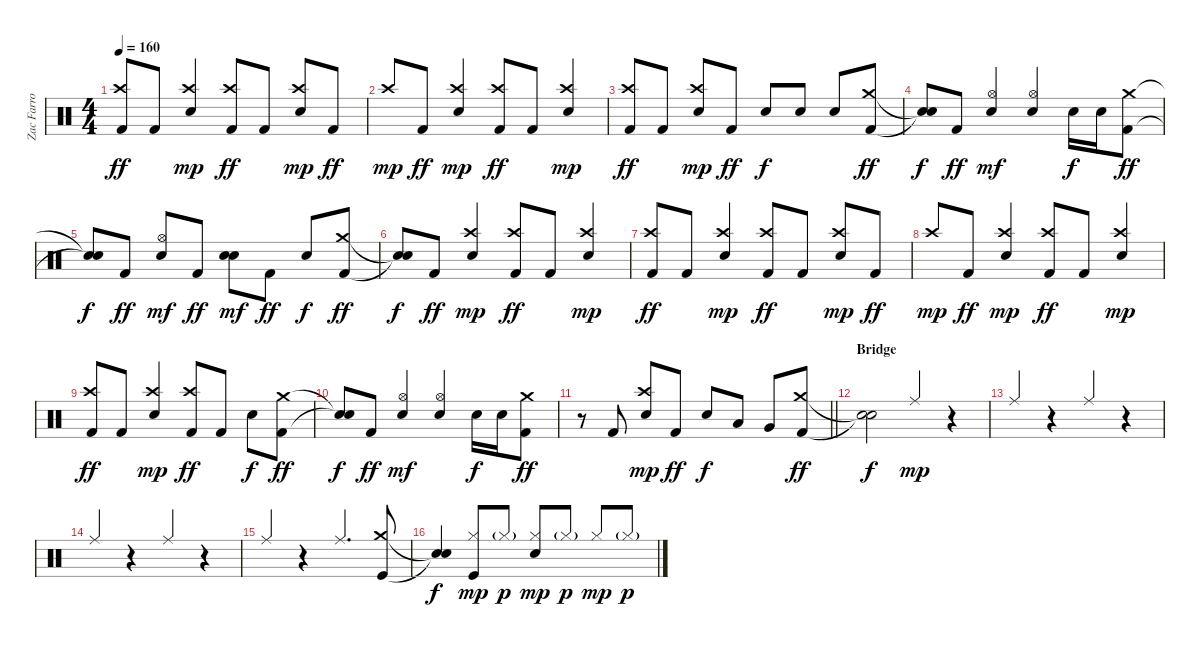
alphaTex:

\track ("Zac Farro" "Zac Farro") {instrument percussion}
\staff {score}
\articulation defaults
\ts (4 4)
\tempo 160
\clef neutral
\ks c
("Crash high (hit)" "Kick (hit) 2").8{dy ff beam Up} "Kick (hit) 2".8{beam Up} ("Crash high (hit)" "Snare (hit) 2").4{dy mp beam Up} ("Crash high (hit)" "Kick (hit) 2").8{dy ff beam Up} "Kick (hit) 2".8{beam Up} ("Crash high (hit)" "Snare (hit) 2").8{dy mp beam Up} "Kick (hit) 2".8{dy ff beam Up} |
"Crash high (hit)".8{dy mp beam Up} "Kick (hit) 2".8{dy ff beam Up} ("Crash high (hit)" "Snare (hit) 2").4{dy mp beam Up} ("Crash high (hit)" "Kick (hit) 2").8{dy ff beam Up} "Kick (hit) 2".8{beam Up} ("Crash high (hit)" "Snare (hit) 2").4{dy mp beam Up} |
("Crash high (hit)" "Kick (hit) 2").8{dy ff beam Up} "Kick (hit) 2".8{beam Up} ("Crash high (hit)" "Snare (hit) 2").8{dy mp beam Up} "Kick (hit) 2".8{dy ff beam Up} "Snare (hit) 2".8{dy f beam Up} "Snare (hit) 2".8{beam Up} "Snare (hit) 2".8{beam Up} ("Crash medium (hit)" "Kick (hit) 2").8{dy ff beam Up} |
("Snare (hit)"{t} "Snare (hit)"{t}).8{dy f beam Up} "Kick (hit) 2".8{dy ff} ("Hi-Hat (open)" "Snare (hit) 2").4{dy mf beam Up} ("Hi-Hat (open)" "Snare (hit) 2").4{beam Up} "Snare (hit) 2".16{dy f beam Down} "Snare (hit) 2".16{beam Down} ("Crash medium (hit)" "Kick (hit) 2").8{dy ff beam Down} |
("Snare (hit)"{t} "Snare (hit)"{t}).8{dy f beam Up} "Kick (hit) 2".8{dy ff} ("Hi-Hat (open)" "Snare (hit) 2").8{dy mf beam Up} "Kick (hit) 2".8{dy ff beam Up} ("Snare (hit) 2" "Snare (hit) 2").8{dy mf beam Down} "Kick (hit) 2".8{dy ff beam Down} "Snare (hit) 2".8{dy f beam Up} ("Crash medium (hit)" "Kick (hit) 2").8{dy ff beam Up} |
("Snare (hit)"{t} "Snare (hit)"{t}).8{dy f beam Up} "Kick (hit) 2".8{dy ff} ("Crash high (hit)" "Snare (hit) 2").4{dy mp beam Up} ("Crash high (hit)" "Kick (hit) 2").8{dy ff beam Up} "Kick (hit) 2".8{beam Up} ("Crash high (hit)" "Snare (hit) 2").4{dy mp beam Up} |
("Crash high (hit)" "Kick (hit) 2").8{dy ff beam Up} "Kick (hit) 2".8{beam Up} ("Crash high (hit)" "Snare (hit) 2").4{dy mp beam Up} ("Crash high (hit)" "Kick (hit) 2").8{dy ff beam Up} "Kick (hit) 2".8{beam Up} ("Crash high (hit)" "Snare (hit) 2").8{dy mp beam Up} "Kick (hit) 2".8{dy ff beam Up} |
"Crash high (hit)".8{dy mp beam Up} "Kick (hit) 2".8{dy ff beam Up} ("Crash high (hit)" "Snare (hit) 2").4{dy mp beam Up} ("Crash high (hit)" "Kick (hit) 2").8{dy ff beam Up} "Kick (hit) 2".8{beam Up} ("Crash high (hit)" "Snare (hit) 2").4{dy mp beam Up} |
("Crash high (hit)" "Kick (hit) 2").8{dy ff beam Up} "Kick (hit) 2".8{beam Up} ("Crash high (hit)" "Snare (hit) 2").4{dy mp beam Up} ("Crash high (hit)" "Kick (hit) 2").8{dy ff beam Up} "Kick (hit) 2".8{beam Up} "Snare (hit) 2".8{dy f beam Down} ("Crash medium (hit)" "Kick (hit) 2").8{dy ff beam Down} |
("Snare (hit)"{t} "Snare (hit)"{t}).8{dy f beam Up} "Kick (hit) 2".8{dy ff} ("Hi-Hat (open)" "Snare (hit) 2").4{dy mf beam Up} ("Hi-Hat (open)" "Snare (hit) 2").4{beam Up} "Snare (hit) 2".16{dy f beam Down} "Snare (hit) 2".16{beam Down} ("Crash medium (hit)" "Kick (hit) 2").8{dy ff beam Down} |
\barLineRight lightlight
r.8{beam Up} "Kick (hit) 2".8{beam Down} ("Crash high (hit)" "Snare (hit) 2").8{dy mp beam Up} "Kick (hit) 2".8{dy ff beam Up} "Snare (hit) 2".8{dy f beam Up} "Low Tom (hit)".8{beam Up} "Very Low Tom (hit)".8{beam Up} ("Crash medium (hit)" "Kick (hit) 2").8{dy ff beam Up} |
\section ("" "Bridge")
("Snare (hit)"{t} "Snare (hit)"{t}).2{dy f} "Ride (middle)".4{dy mp beam Up} r.4 |
"Ride (middle)".4{beam Up} r.4 "Ride (middle)".4{beam Up} r.4 |
"Ride (middle)".4{beam Up} r.4 "Ride (middle)".4{beam Up} r.4 |
"Ride (middle)".4{beam Up} r.4 "Ride (middle)".4{d beam Up} ("Crash medium (hit)" "Kick (hit)").8{beam Up} |
("Snare (hit)"{t} "Snare (hit)"{t}).4{dy f beam Up} ("Hi-Hat (closed)" "Kick (hit)").8{dy mp beam Up} "Hi-Hat (closed)"{g}.8{dy p beam Up} ("Hi-Hat (closed)" "Electric Snare (hit)").8{dy mp beam Up} "Hi-Hat (closed)"{g}.8{dy p beam Up} "Hi-Hat (closed)".8{dy mp beam Up} "Hi-Hat (closed)"{g}.8{dy p beam Up}
